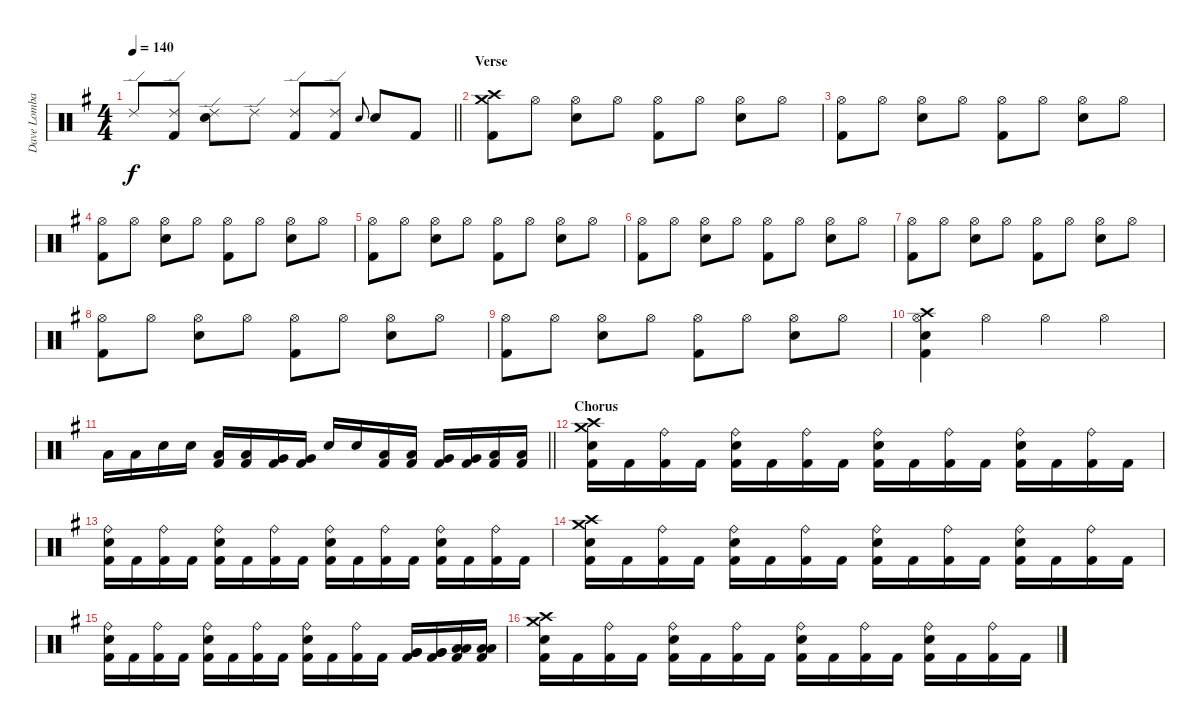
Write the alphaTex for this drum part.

\track ("Dave Lombardo" "Dave Lomba") {instrument percussion}
\staff {score}
\articulation defaults
\ts (4 4)
\tempo 140
\clef neutral
\barLineRight lightlight
\ks g "Ride (edge) 2".8{dy f}
("Ride (edge) 2" "Kick (hit) 2").8 ("Ride (edge) 2" "Electric Snare (hit)").8 "Ride (edge) 2".8 ("Ride (edge) 2" "Kick (hit) 2").8 ("Ride (edge) 2" "Kick (hit) 2").8 "Electric Snare (hit)".8{gr onbeat} "Electric Snare (hit)".8 "Kick (hit) 2".8 |
\section ("" "Verse")
("Crash high (hit)" "Crash medium (hit)" "Kick (hit) 2").8 "Hi-Hat (open)".8 ("Hi-Hat (open)" "Electric Snare (hit)").8 "Hi-Hat (open)".8 ("Hi-Hat (open)" "Kick (hit) 2").8 "Hi-Hat (open)".8 ("Hi-Hat (open)" "Electric Snare (hit)").8 "Hi-Hat (open)".8 |
("Hi-Hat (open)" "Kick (hit) 2").8 "Hi-Hat (open)".8 ("Hi-Hat (open)" "Electric Snare (hit)").8 "Hi-Hat (open)".8 ("Hi-Hat (open)" "Kick (hit) 2").8 "Hi-Hat (open)".8 ("Hi-Hat (open)" "Electric Snare (hit)").8 "Hi-Hat (open)".8 |
("Hi-Hat (open)" "Kick (hit) 2").8 "Hi-Hat (open)".8 ("Hi-Hat (open)" "Electric Snare (hit)").8 "Hi-Hat (open)".8 ("Hi-Hat (open)" "Kick (hit) 2").8 "Hi-Hat (open)".8 ("Hi-Hat (open)" "Electric Snare (hit)").8 "Hi-Hat (open)".8 |
("Hi-Hat (open)" "Kick (hit) 2").8 "Hi-Hat (open)".8 ("Hi-Hat (open)" "Electric Snare (hit)").8 "Hi-Hat (open)".8 ("Hi-Hat (open)" "Kick (hit) 2").8 "Hi-Hat (open)".8 ("Hi-Hat (open)" "Electric Snare (hit)").8 "Hi-Hat (open)".8 |
("Hi-Hat (open)" "Kick (hit) 2").8 "Hi-Hat (open)".8 ("Hi-Hat (open)" "Electric Snare (hit)").8 "Hi-Hat (open)".8 ("Hi-Hat (open)" "Kick (hit) 2").8 "Hi-Hat (open)".8 ("Hi-Hat (open)" "Electric Snare (hit)").8 "Hi-Hat (open)".8 |
("Hi-Hat (open)" "Kick (hit) 2").8 "Hi-Hat (open)".8 ("Hi-Hat (open)" "Electric Snare (hit)").8 "Hi-Hat (open)".8 ("Hi-Hat (open)" "Kick (hit) 2").8 "Hi-Hat (open)".8 ("Hi-Hat (open)" "Electric Snare (hit)").8 "Hi-Hat (open)".8 |
("Hi-Hat (open)" "Kick (hit) 2").8 "Hi-Hat (open)".8 ("Hi-Hat (open)" "Electric Snare (hit)").8 "Hi-Hat (open)".8 ("Hi-Hat (open)" "Kick (hit) 2").8 "Hi-Hat (open)".8 ("Hi-Hat (open)" "Electric Snare (hit)").8 "Hi-Hat (open)".8 |
("Hi-Hat (open)" "Kick (hit) 2").8 "Hi-Hat (open)".8 ("Hi-Hat (open)" "Electric Snare (hit)").8 "Hi-Hat (open)".8 ("Hi-Hat (open)" "Kick (hit) 2").8 "Hi-Hat (open)".8 ("Hi-Hat (open)" "Electric Snare (hit)").8 "Hi-Hat (open)".8 |
("Crash high (hit)" "Hi-Hat (open)" "Electric Snare (hit)" "Kick (hit) 2").4 "Hi-Hat (open)".4 "Hi-Hat (open)".4 "Hi-Hat (open)".4 |
\barLineRight lightlight "Low Floor Tom (hit)".16 "Low Floor Tom (hit)".16 "Electric Snare (hit)".16 "Electric Snare (hit)".16
("Low Tom (hit)" "Kick (hit) 2").16 ("Low Tom (hit)" "Kick (hit) 2").16 ("Very Low Tom (hit)" "Kick (hit) 2").16 ("Very Low Tom (hit)" "Kick (hit) 2").16 "Electric Snare (hit)".16 "Electric Snare (hit)".16 ("Low Tom (hit)" "Kick (hit) 2").16 ("Low Tom (hit)" "Kick (hit) 2").16 ("Very Low Tom (hit)" "Kick (hit) 2").16 ("Very Low Tom (hit)" "Kick (hit) 2").16 ("Low Floor Tom (hit)" "Kick (hit) 2").16 ("Low Floor Tom (hit)" "Kick (hit) 2").16 |
\section ("" "Chorus")
("Crash high (hit)" "Crash medium (hit)" "Electric Snare (hit)" "Kick (hit) 2").16 "Kick (hit) 2".16 ("Ride (bell)" "Kick (hit) 2").16 "Kick (hit) 2".16 ("Ride (bell)" "Electric Snare (hit)" "Kick (hit) 2").16 "Kick (hit) 2".16 ("Ride (bell)" "Kick (hit) 2").16 "Kick (hit) 2".16 ("Ride (bell)" "Electric Snare (hit)" "Kick (hit) 2").16 "Kick (hit) 2".16 ("Ride (bell)" "Kick (hit) 2").16 "Kick (hit) 2".16 ("Ride (bell)" "Electric Snare (hit)" "Kick (hit) 2").16 "Kick (hit) 2".16 ("Ride (bell)" "Kick (hit) 2").16 "Kick (hit) 2".16 |
("Ride (bell)" "Electric Snare (hit)" "Kick (hit) 2").16 "Kick (hit) 2".16 ("Ride (bell)" "Kick (hit) 2").16 "Kick (hit) 2".16 ("Ride (bell)" "Electric Snare (hit)" "Kick (hit) 2").16 "Kick (hit) 2".16 ("Ride (bell)" "Kick (hit) 2").16 "Kick (hit) 2".16 ("Ride (bell)" "Electric Snare (hit)" "Kick (hit) 2").16 "Kick (hit) 2".16 ("Ride (bell)" "Kick (hit) 2").16 "Kick (hit) 2".16 ("Ride (bell)" "Electric Snare (hit)" "Kick (hit) 2").16 "Kick (hit) 2".16 ("Ride (bell)" "Kick (hit) 2").16 "Kick (hit) 2".16 |
("Crash high (hit)" "Crash medium (hit)" "Electric Snare (hit)" "Kick (hit) 2").16 "Kick (hit) 2".16 ("Ride (bell)" "Kick (hit) 2").16 "Kick (hit) 2".16 ("Ride (bell)" "Electric Snare (hit)" "Kick (hit) 2").16 "Kick (hit) 2".16 ("Ride (bell)" "Kick (hit) 2").16 "Kick (hit) 2".16 ("Ride (bell)" "Electric Snare (hit)" "Kick (hit) 2").16 "Kick (hit) 2".16 ("Ride (bell)" "Kick (hit) 2").16 "Kick (hit) 2".16 ("Ride (bell)" "Electric Snare (hit)" "Kick (hit) 2").16 "Kick (hit) 2".16 ("Ride (bell)" "Kick (hit) 2").16 "Kick (hit) 2".16 |
("Ride (bell)" "Electric Snare (hit)" "Kick (hit) 2").16 "Kick (hit) 2".16 ("Ride (bell)" "Kick (hit) 2").16 "Kick (hit) 2".16 ("Ride (bell)" "Electric Snare (hit)" "Kick (hit) 2").16 "Kick (hit) 2".16 ("Ride (bell)" "Kick (hit) 2").16 "Kick (hit) 2".16 ("Ride (bell)" "Electric Snare (hit)" "Kick (hit) 2").16 "Kick (hit) 2".16 ("Ride (bell)" "Kick (hit) 2").16 "Kick (hit) 2".16 ("Very Low Tom (hit)" "Very Low Tom (hit)" "Kick (hit) 2").16 ("Very Low Tom (hit)" "Very Low Tom (hit)" "Kick (hit) 2").16 ("Low Floor Tom (hit)" "Low Floor Tom (hit)" "Kick (hit) 2").16 ("Low Floor Tom (hit)" "Low Floor Tom (hit)" "Kick (hit) 2").16 |
("Crash high (hit)" "Crash medium (hit)" "Electric Snare (hit)" "Kick (hit) 2").16 "Kick (hit) 2".16 ("Ride (bell)" "Kick (hit) 2").16 "Kick (hit) 2".16 ("Ride (bell)" "Electric Snare (hit)" "Kick (hit) 2").16 "Kick (hit) 2".16 ("Ride (bell)" "Kick (hit) 2").16 "Kick (hit) 2".16 ("Ride (bell)" "Electric Snare (hit)" "Kick (hit) 2").16 "Kick (hit) 2".16 ("Ride (bell)" "Kick (hit) 2").16 "Kick (hit) 2".16 ("Ride (bell)" "Electric Snare (hit)" "Kick (hit) 2").16 "Kick (hit) 2".16 ("Ride (bell)" "Kick (hit) 2").16 "Kick (hit) 2".16
